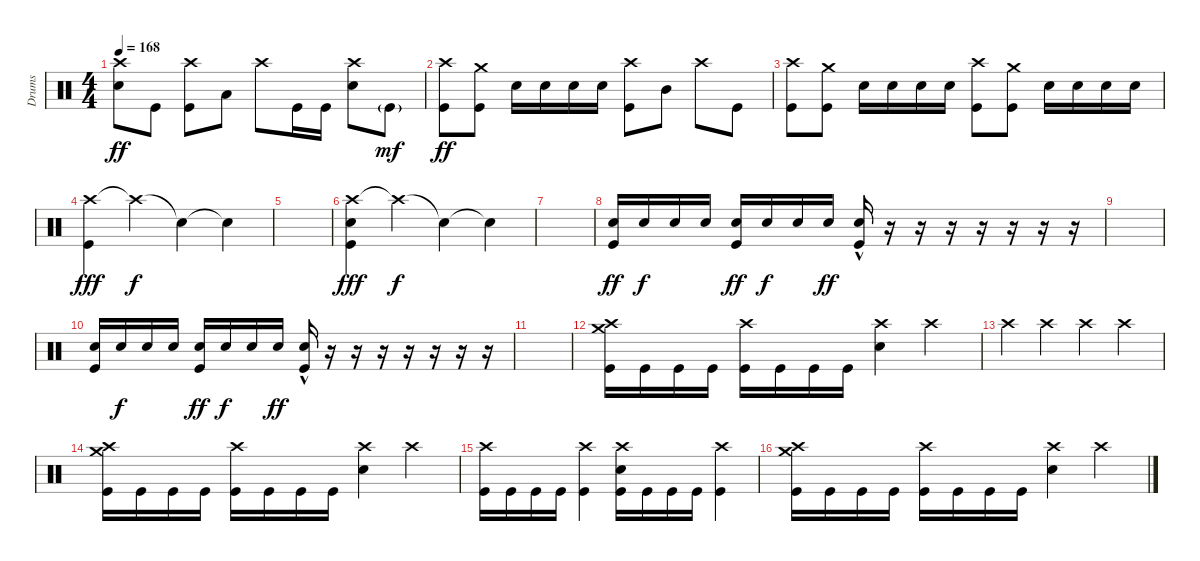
\track ("Drums" "Drums") {instrument percussion}
\staff {score}
\articulation defaults
\ts (4 4)
\tempo 168
\clef neutral
\ks c
("Crash high (hit)" "Snare (hit) 2").8{dy ff} "Kick (hit)".8 ("Crash high (hit)" "Kick (hit)").8 "Low Floor Tom (hit)".8 "Crash high (hit)".8 "Kick (hit)".16 "Kick (hit)".16 ("Crash high (hit)" "Snare (hit) 2").8 "Kick (hit)"{g}.8{dy mf} |
("Crash high (hit)" "Kick (hit)").8{dy ff} ("Crash medium (hit)" "Kick (hit)").8 "Snare (hit) 2".16 "Snare (hit) 2".16 "Snare (hit) 2".16 "Snare (hit) 2".16 ("Crash high (hit)" "Kick (hit)").8 "Mid Tom (hit)".8 "Crash high (hit)".8 "Kick (hit)".8 |
("Crash high (hit)" "Kick (hit)").8 ("Crash medium (hit)" "Kick (hit)").8 "Snare (hit) 2".16 "Snare (hit) 2".16 "Snare (hit) 2".16 "Snare (hit) 2".16 ("Crash high (hit)" "Kick (hit)").8 ("Crash medium (hit)" "Kick (hit)").8 "Snare (hit) 2".16 "Snare (hit) 2".16 "Snare (hit) 2".16 "Snare (hit) 2".16 |
("Crash high (hit)" "Kick (hit)").4{dy fff} "Crash high (hit)"{t}.4{dy f volume 4} "Snare (hit)"{t}.4 "Snare (hit)"{t}.4 |
|
("Crash high (hit)" "Snare (hit) 2" "Kick (hit)").4{dy fff volume 13} "Crash high (hit)"{t}.4{dy f volume 4} "Snare (hit)"{t}.4 "Snare (hit)"{t}.4 |
|
("Snare (hit) 2" "Kick (hit)").16{dy ff volume 13} "Snare (hit) 2".16{dy f} "Snare (hit) 2".16 "Snare (hit) 2".16 ("Snare (hit) 2" "Kick (hit)").16{dy ff} "Snare (hit) 2".16{dy f} "Snare (hit) 2".16 "Snare (hit) 2".16{dy ff} ("Snare (hit) 2"{hac} "Kick (hit)").16 r.16 r.16 r.16 r.16 r.16 r.16 r.16 |
|
("Snare (hit) 2" "Kick (hit)").16 "Snare (hit) 2".16{dy f} "Snare (hit) 2".16 "Snare (hit) 2".16 ("Snare (hit) 2" "Kick (hit)").16{dy ff} "Snare (hit) 2".16{dy f} "Snare (hit) 2".16 "Snare (hit) 2".16{dy ff} ("Snare (hit) 2"{hac} "Kick (hit)").16 r.16 r.16 r.16 r.16 r.16 r.16 r.16 |
|
("Crash high (hit)" "Crash medium (hit)" "Kick (hit)").16 "Kick (hit)".16 "Kick (hit)".16 "Kick (hit)".16 ("Crash high (hit)" "Kick (hit)").16 "Kick (hit)".16 "Kick (hit)".16 "Kick (hit)".16 ("Crash high (hit)" "Snare (hit) 2").4 "Crash high (hit)".4 |
"Crash high (hit)".4 "Crash high (hit)".4 "Crash high (hit)".4 "Crash high (hit)".4 |
("Crash high (hit)" "Crash medium (hit)" "Kick (hit)").16 "Kick (hit)".16 "Kick (hit)".16 "Kick (hit)".16 ("Crash high (hit)" "Kick (hit)").16 "Kick (hit)".16 "Kick (hit)".16 "Kick (hit)".16 ("Crash high (hit)" "Snare (hit) 2").4 "Crash high (hit)".4 |
("Crash high (hit)" "Kick (hit)").16 "Kick (hit)".16 "Kick (hit)".16 "Kick (hit)".16 ("Crash high (hit)" "Kick (hit)").4 ("Crash high (hit)" "Snare (hit) 2" "Kick (hit)").16 "Kick (hit)".16 "Kick (hit)".16 "Kick (hit)".16 ("Crash high (hit)" "Kick (hit)").4 |
("Crash high (hit)" "Crash medium (hit)" "Kick (hit)").16 "Kick (hit)".16 "Kick (hit)".16 "Kick (hit)".16 ("Crash high (hit)" "Kick (hit)").16 "Kick (hit)".16 "Kick (hit)".16 "Kick (hit)".16 ("Crash high (hit)" "Snare (hit) 2").4 "Crash high (hit)".4
